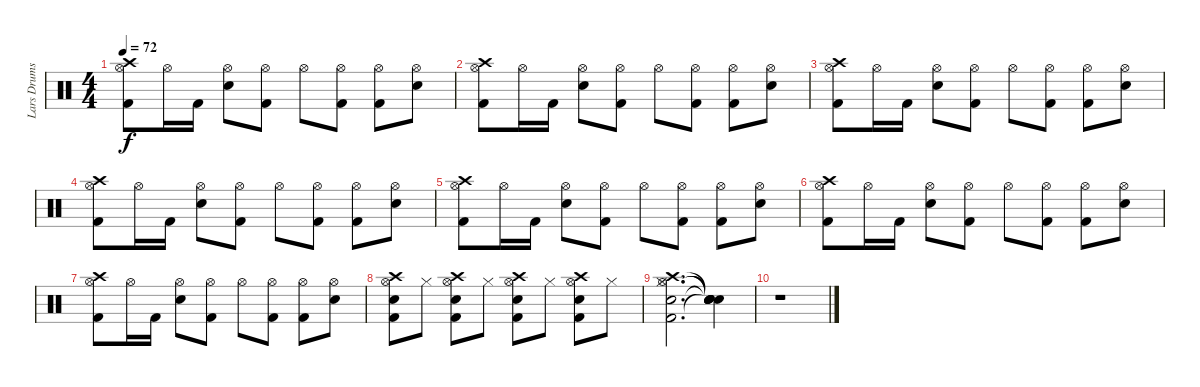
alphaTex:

\track ("Lars Drums" "Lars Drums") {instrument percussion}
\staff {score}
\articulation defaults
\ts (4 4)
\tempo 72
\clef neutral
\ks c
("Kick (hit) 2" "Hi-Hat (open)" "Crash high (hit)").8{dy f} "Hi-Hat (open)".16 "Kick (hit) 2".16 ("Snare (hit) 2" "Hi-Hat (open)").8 ("Kick (hit) 2" "Hi-Hat (open)").8 "Hi-Hat (open)".8 ("Kick (hit) 2" "Hi-Hat (open)").8 ("Kick (hit) 2" "Hi-Hat (open)").8 ("Snare (hit) 2" "Hi-Hat (open)").8 |
("Kick (hit) 2" "Hi-Hat (open)" "Crash high (hit)").8 "Hi-Hat (open)".16 "Kick (hit) 2".16 ("Snare (hit) 2" "Hi-Hat (open)").8 ("Kick (hit) 2" "Hi-Hat (open)").8 "Hi-Hat (open)".8 ("Kick (hit) 2" "Hi-Hat (open)").8 ("Kick (hit) 2" "Hi-Hat (open)").8 ("Snare (hit) 2" "Hi-Hat (open)").8 |
("Kick (hit) 2" "Hi-Hat (open)" "Crash high (hit)").8 "Hi-Hat (open)".16 "Kick (hit) 2".16 ("Snare (hit) 2" "Hi-Hat (open)").8 ("Kick (hit) 2" "Hi-Hat (open)").8 "Hi-Hat (open)".8 ("Kick (hit) 2" "Hi-Hat (open)").8 ("Kick (hit) 2" "Hi-Hat (open)").8 ("Snare (hit) 2" "Hi-Hat (open)").8 |
("Kick (hit) 2" "Hi-Hat (open)" "Crash high (hit)").8 "Hi-Hat (open)".16 "Kick (hit) 2".16 ("Snare (hit) 2" "Hi-Hat (open)").8 ("Kick (hit) 2" "Hi-Hat (open)").8 "Hi-Hat (open)".8 ("Kick (hit) 2" "Hi-Hat (open)").8 ("Kick (hit) 2" "Hi-Hat (open)").8 ("Snare (hit) 2" "Hi-Hat (open)").8 |
("Kick (hit) 2" "Hi-Hat (open)" "Crash high (hit)").8 "Hi-Hat (open)".16 "Kick (hit) 2".16 ("Snare (hit) 2" "Hi-Hat (open)").8 ("Kick (hit) 2" "Hi-Hat (open)").8 "Hi-Hat (open)".8 ("Kick (hit) 2" "Hi-Hat (open)").8 ("Kick (hit) 2" "Hi-Hat (open)").8 ("Snare (hit) 2" "Hi-Hat (open)").8 |
("Kick (hit) 2" "Hi-Hat (open)" "Crash high (hit)").8 "Hi-Hat (open)".16 "Kick (hit) 2".16 ("Snare (hit) 2" "Hi-Hat (open)").8 ("Kick (hit) 2" "Hi-Hat (open)").8 "Hi-Hat (open)".8 ("Kick (hit) 2" "Hi-Hat (open)").8 ("Kick (hit) 2" "Hi-Hat (open)").8 ("Snare (hit) 2" "Hi-Hat (open)").8 |
("Kick (hit) 2" "Hi-Hat (open)" "Crash high (hit)").8 "Hi-Hat (open)".16 "Kick (hit) 2".16 ("Snare (hit) 2" "Hi-Hat (open)").8 ("Kick (hit) 2" "Hi-Hat (open)").8 "Hi-Hat (open)".8 ("Kick (hit) 2" "Hi-Hat (open)").8 ("Kick (hit) 2" "Hi-Hat (open)").8 ("Snare (hit) 2" "Hi-Hat (open)").8 |
("Kick (hit) 2" "Snare (hit) 2" "Hi-Hat (open)" "Crash high (hit)").8 "Hi-Hat (closed)".8 ("Kick (hit) 2" "Snare (hit) 2" "Hi-Hat (open)" "Crash high (hit)").8 "Hi-Hat (closed)".8 ("Kick (hit) 2" "Snare (hit) 2" "Hi-Hat (open)" "Crash high (hit)").8 "Hi-Hat (closed)".8 ("Kick (hit) 2" "Snare (hit) 2" "Hi-Hat (open)" "Crash high (hit)").8 "Hi-Hat (closed)".8 |
("Kick (hit) 2" "Snare (hit) 2" "Hi-Hat (closed)" "Hi-Hat (open)" "Crash high (hit)").2{d} ("Snare (hit)"{t} "Snare (hit)"{t} "Snare (hit)"{t} "Snare (hit)"{t} "Snare (hit)"{t}).4 |
r.1
